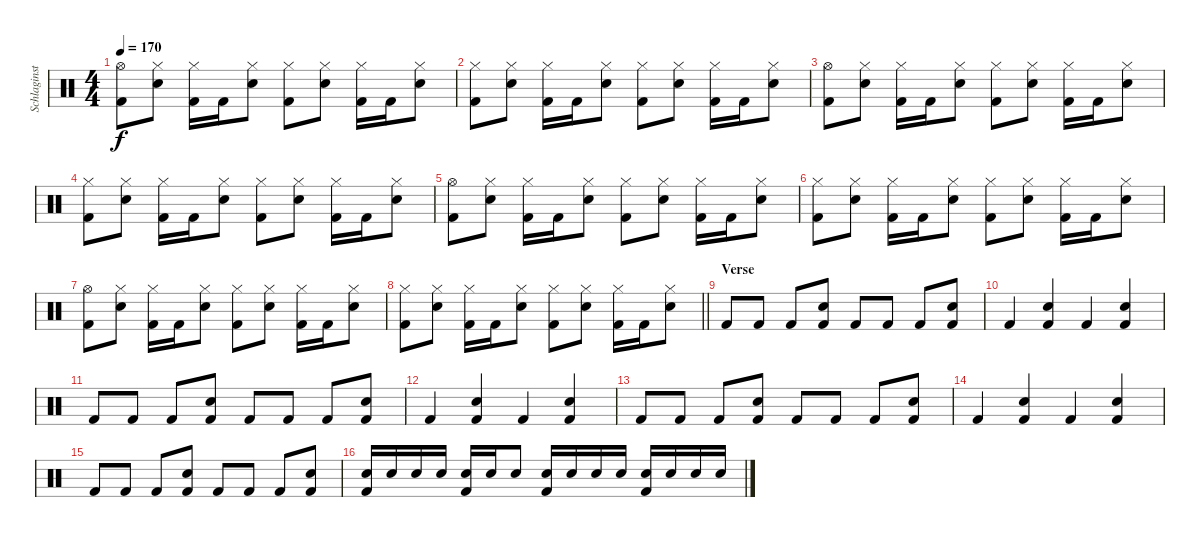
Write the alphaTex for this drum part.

\track ("Schlaginstrumente - Auswahl" "Schlaginst") {instrument percussion}
\staff {score}
\articulation defaults
\ts (4 4)
\tempo 170
\clef neutral
\ks c
("Hi-Hat (open)" "Kick (hit) 2").8{dy f} ("Hi-Hat (closed)" "Snare (hit) 2").8 ("Hi-Hat (closed)" "Kick (hit) 2").16 "Kick (hit) 2".16 ("Hi-Hat (closed)" "Snare (hit) 2").8 ("Hi-Hat (closed)" "Kick (hit) 2").8 ("Hi-Hat (closed)" "Snare (hit) 2").8 ("Hi-Hat (closed)" "Kick (hit) 2").16 "Kick (hit) 2".16 ("Hi-Hat (closed)" "Snare (hit) 2").8 |
("Hi-Hat (closed)" "Kick (hit) 2").8 ("Hi-Hat (closed)" "Snare (hit) 2").8 ("Hi-Hat (closed)" "Kick (hit) 2").16 "Kick (hit) 2".16 ("Hi-Hat (closed)" "Snare (hit) 2").8 ("Hi-Hat (closed)" "Kick (hit) 2").8 ("Hi-Hat (closed)" "Snare (hit) 2").8 ("Hi-Hat (closed)" "Kick (hit) 2").16 "Kick (hit) 2".16 ("Hi-Hat (closed)" "Snare (hit) 2").8 |
("Hi-Hat (open)" "Kick (hit) 2").8 ("Hi-Hat (closed)" "Snare (hit) 2").8 ("Hi-Hat (closed)" "Kick (hit) 2").16 "Kick (hit) 2".16 ("Hi-Hat (closed)" "Snare (hit) 2").8 ("Hi-Hat (closed)" "Kick (hit) 2").8 ("Hi-Hat (closed)" "Snare (hit) 2").8 ("Hi-Hat (closed)" "Kick (hit) 2").16 "Kick (hit) 2".16 ("Hi-Hat (closed)" "Snare (hit) 2").8 |
("Hi-Hat (closed)" "Kick (hit) 2").8 ("Hi-Hat (closed)" "Snare (hit) 2").8 ("Hi-Hat (closed)" "Kick (hit) 2").16 "Kick (hit) 2".16 ("Hi-Hat (closed)" "Snare (hit) 2").8 ("Hi-Hat (closed)" "Kick (hit) 2").8 ("Hi-Hat (closed)" "Snare (hit) 2").8 ("Hi-Hat (closed)" "Kick (hit) 2").16 "Kick (hit) 2".16 ("Hi-Hat (closed)" "Snare (hit) 2").8 |
("Hi-Hat (open)" "Kick (hit) 2").8 ("Hi-Hat (closed)" "Snare (hit) 2").8 ("Hi-Hat (closed)" "Kick (hit) 2").16 "Kick (hit) 2".16 ("Hi-Hat (closed)" "Snare (hit) 2").8 ("Hi-Hat (closed)" "Kick (hit) 2").8 ("Hi-Hat (closed)" "Snare (hit) 2").8 ("Hi-Hat (closed)" "Kick (hit) 2").16 "Kick (hit) 2".16 ("Hi-Hat (closed)" "Snare (hit) 2").8 |
("Hi-Hat (closed)" "Kick (hit) 2").8 ("Hi-Hat (closed)" "Snare (hit) 2").8 ("Hi-Hat (closed)" "Kick (hit) 2").16 "Kick (hit) 2".16 ("Hi-Hat (closed)" "Snare (hit) 2").8 ("Hi-Hat (closed)" "Kick (hit) 2").8 ("Hi-Hat (closed)" "Snare (hit) 2").8 ("Hi-Hat (closed)" "Kick (hit) 2").16 "Kick (hit) 2".16 ("Hi-Hat (closed)" "Snare (hit) 2").8 |
("Hi-Hat (open)" "Kick (hit) 2").8 ("Hi-Hat (closed)" "Snare (hit) 2").8 ("Hi-Hat (closed)" "Kick (hit) 2").16 "Kick (hit) 2".16 ("Hi-Hat (closed)" "Snare (hit) 2").8 ("Hi-Hat (closed)" "Kick (hit) 2").8 ("Hi-Hat (closed)" "Snare (hit) 2").8 ("Hi-Hat (closed)" "Kick (hit) 2").16 "Kick (hit) 2".16 ("Hi-Hat (closed)" "Snare (hit) 2").8 |
\barLineRight lightlight
("Hi-Hat (closed)" "Kick (hit) 2").8 ("Hi-Hat (closed)" "Snare (hit) 2").8 ("Hi-Hat (closed)" "Kick (hit) 2").16 "Kick (hit) 2".16 ("Hi-Hat (closed)" "Snare (hit) 2").8 ("Hi-Hat (closed)" "Kick (hit) 2").8 ("Hi-Hat (closed)" "Snare (hit) 2").8 ("Hi-Hat (closed)" "Kick (hit) 2").16 "Kick (hit) 2".16 ("Hi-Hat (closed)" "Snare (hit) 2").8 |
\section ("" "Verse")
"Kick (hit) 2".8 "Kick (hit) 2".8 "Kick (hit) 2".8 ("Snare (hit) 2" "Kick (hit) 2").8 "Kick (hit) 2".8 "Kick (hit) 2".8 "Kick (hit) 2".8 ("Snare (hit) 2" "Kick (hit) 2").8 |
"Kick (hit) 2".4 ("Snare (hit) 2" "Kick (hit) 2").4 "Kick (hit) 2".4 ("Snare (hit) 2" "Kick (hit) 2").4 |
"Kick (hit) 2".8 "Kick (hit) 2".8 "Kick (hit) 2".8 ("Snare (hit) 2" "Kick (hit) 2").8 "Kick (hit) 2".8 "Kick (hit) 2".8 "Kick (hit) 2".8 ("Snare (hit) 2" "Kick (hit) 2").8 |
"Kick (hit) 2".4 ("Snare (hit) 2" "Kick (hit) 2").4 "Kick (hit) 2".4 ("Snare (hit) 2" "Kick (hit) 2").4 |
"Kick (hit) 2".8 "Kick (hit) 2".8 "Kick (hit) 2".8 ("Snare (hit) 2" "Kick (hit) 2").8 "Kick (hit) 2".8 "Kick (hit) 2".8 "Kick (hit) 2".8 ("Snare (hit) 2" "Kick (hit) 2").8 |
"Kick (hit) 2".4 ("Snare (hit) 2" "Kick (hit) 2").4 "Kick (hit) 2".4 ("Snare (hit) 2" "Kick (hit) 2").4 |
"Kick (hit) 2".8 "Kick (hit) 2".8 "Kick (hit) 2".8 ("Snare (hit) 2" "Kick (hit) 2").8 "Kick (hit) 2".8 "Kick (hit) 2".8 "Kick (hit) 2".8 ("Snare (hit) 2" "Kick (hit) 2").8 |
("Snare (hit) 2" "Kick (hit) 2").16 "Snare (hit) 2".16 "Snare (hit) 2".16 "Snare (hit) 2".16 ("Snare (hit) 2" "Kick (hit) 2").16 "Snare (hit) 2".16 "Snare (hit) 2".8 ("Snare (hit) 2" "Kick (hit) 2").16 "Snare (hit) 2".16 "Snare (hit) 2".16 "Snare (hit) 2".16 ("Snare (hit) 2" "Kick (hit) 2").16 "Snare (hit) 2".16 "Snare (hit) 2".16 "Snare (hit) 2".16
